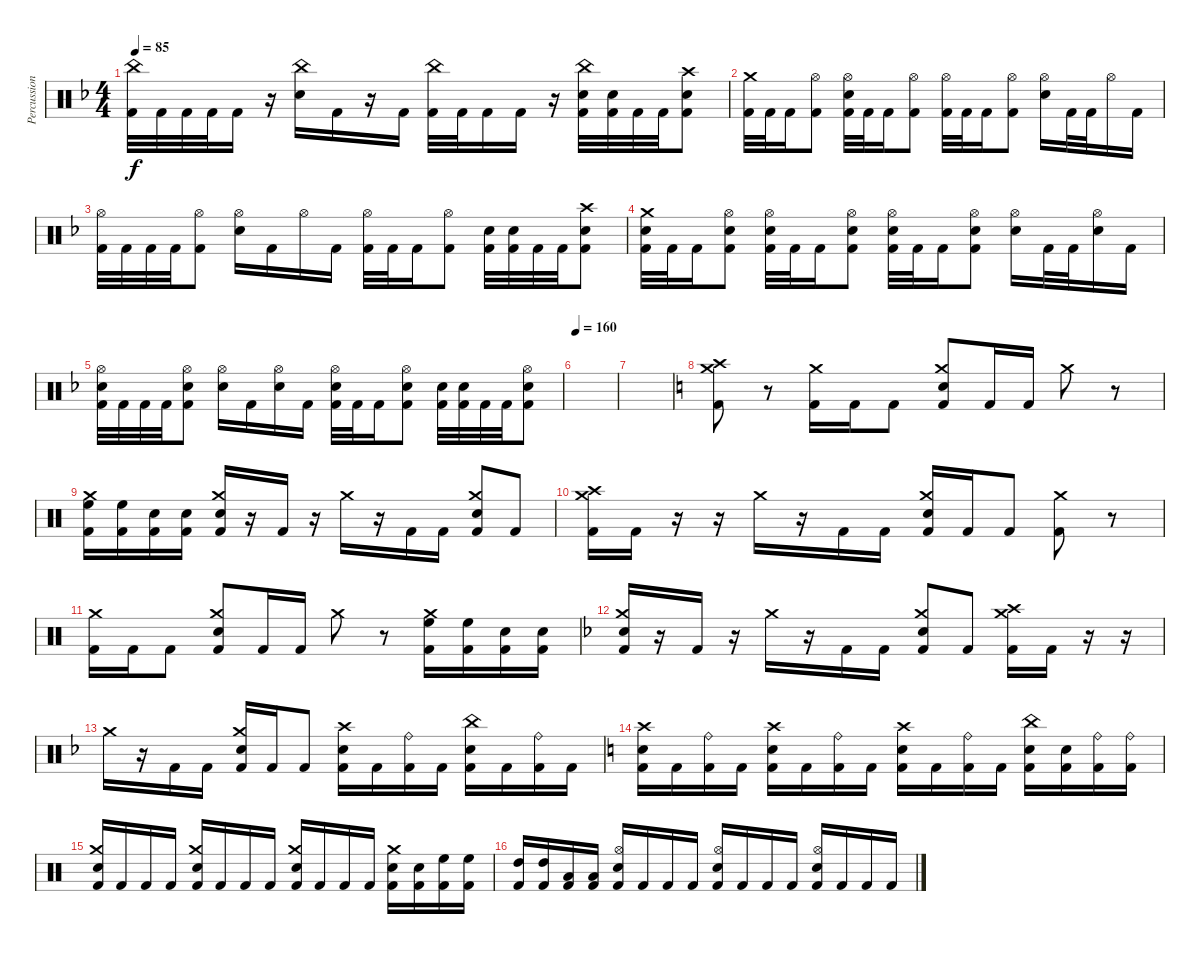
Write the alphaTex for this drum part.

\track ("Percussion" "Percussion") {instrument percussion}
\staff {score}
\articulation defaults
\ts (4 4)
\tempo 85
\clef neutral
\ks dminor
("China (hit)" "Kick (hit) 2").32{dy f} "Kick (hit) 2".32 "Kick (hit) 2".32 "Kick (hit) 2".32 "Kick (hit) 2".16 r.16 ("China (hit)" "Electric Snare (hit)").16 "Kick (hit) 2".16 r.16 "Kick (hit) 2".16 ("China (hit)" "Kick (hit) 2").32 "Kick (hit) 2".32 "Kick (hit) 2".16 "Kick (hit) 2".16 r.16 ("China (hit)" "Electric Snare (hit)" "Kick (hit) 2").32 ("Electric Snare (hit)" "Kick (hit) 2").32 "Kick (hit) 2".32 "Kick (hit) 2".32 ("Crash high (hit)" "Electric Snare (hit)" "Kick (hit) 2").8 |
("Crash medium (hit)" "Kick (hit) 2").32 "Kick (hit) 2".32 "Kick (hit) 2".16 ("Hi-Hat (open)" "Kick (hit) 2").8 ("Hi-Hat (open)" "Electric Snare (hit)" "Kick (hit) 2").32 "Kick (hit) 2".32 "Kick (hit) 2".16 ("Hi-Hat (open)" "Kick (hit) 2").8 ("Hi-Hat (open)" "Kick (hit) 2").32 "Kick (hit) 2".32 "Kick (hit) 2".16 ("Hi-Hat (open)" "Kick (hit) 2").8 ("Hi-Hat (open)" "Electric Snare (hit)").16 "Kick (hit) 2".32 "Kick (hit) 2".32 "Hi-Hat (open)".16 "Kick (hit) 2".16 |
("Hi-Hat (open)" "Kick (hit) 2").32 "Kick (hit) 2".32 "Kick (hit) 2".32 "Kick (hit) 2".32 ("Hi-Hat (open)" "Kick (hit) 2").8 ("Hi-Hat (open)" "Electric Snare (hit)").16 "Kick (hit) 2".16 "Hi-Hat (open)".16 "Kick (hit) 2".16 ("Hi-Hat (open)" "Kick (hit) 2").32 "Kick (hit) 2".32 "Kick (hit) 2".16 ("Hi-Hat (open)" "Kick (hit) 2").8 ("Electric Snare (hit)" "Kick (hit) 2").32 ("Electric Snare (hit)" "Kick (hit) 2").32 "Kick (hit) 2".32 "Kick (hit) 2".32 ("Crash high (hit)" "Electric Snare (hit)" "Kick (hit) 2").8 |
("Crash medium (hit)" "Electric Snare (hit)" "Kick (hit) 2").32 "Kick (hit) 2".32 "Kick (hit) 2".16 ("Hi-Hat (open)" "Electric Snare (hit)" "Kick (hit) 2").8 ("Hi-Hat (open)" "Electric Snare (hit)" "Kick (hit) 2").32 "Kick (hit) 2".32 "Kick (hit) 2".16 ("Hi-Hat (open)" "Electric Snare (hit)" "Kick (hit) 2").8 ("Hi-Hat (open)" "Electric Snare (hit)" "Kick (hit) 2").32 "Kick (hit) 2".32 "Kick (hit) 2".16 ("Hi-Hat (open)" "Electric Snare (hit)" "Kick (hit) 2").8 ("Hi-Hat (open)" "Electric Snare (hit)").16 "Kick (hit) 2".32 "Kick (hit) 2".32 ("Hi-Hat (open)" "Electric Snare (hit)").16 "Kick (hit) 2".16 |
("Hi-Hat (open)" "Electric Snare (hit)" "Kick (hit) 2").32 "Kick (hit) 2".32 "Kick (hit) 2".32 "Kick (hit) 2".32 ("Hi-Hat (open)" "Electric Snare (hit)" "Kick (hit) 2").8 ("Hi-Hat (open)" "Electric Snare (hit)").16 "Kick (hit) 2".16 ("Hi-Hat (open)" "Electric Snare (hit)").16 "Kick (hit) 2".16 ("Hi-Hat (open)" "Electric Snare (hit)" "Kick (hit) 2").32 "Kick (hit) 2".32 "Kick (hit) 2".16 ("Hi-Hat (open)" "Electric Snare (hit)" "Kick (hit) 2").8 ("Electric Snare (hit)" "Kick (hit) 2").32 ("Electric Snare (hit)" "Kick (hit) 2").32 "Kick (hit) 2".32 "Kick (hit) 2".32 ("Hi-Hat (open)" "Electric Snare (hit)" "Kick (hit) 2").8 |
\tempo 160
|
|
\ks c
("Crash medium (hit)" "Crash high (hit)" "Kick (hit) 2").8 r.8 ("Crash medium (hit)" "Kick (hit) 2").16 "Kick (hit) 2".16 "Kick (hit) 2".8 ("Crash medium (hit)" "Snare (hit) 2" "Kick (hit) 2").8 "Kick (hit) 2".16 "Kick (hit) 2".16 "Crash medium (hit)".8 r.8 |
("Crash medium (hit)" "High Floor Tom (hit)" "Kick (hit) 2").16 ("High Floor Tom (hit)" "Kick (hit) 2").16 ("Snare (hit) 2" "Kick (hit) 2").16 ("Snare (hit) 2" "Kick (hit) 2").16 ("Crash medium (hit)" "Snare (hit) 2" "Kick (hit) 2").16 r.16 "Kick (hit) 2".16 r.16 "Crash medium (hit)".16 r.16 "Kick (hit) 2".16 "Kick (hit) 2".16 ("Crash medium (hit)" "Snare (hit) 2" "Kick (hit) 2").8 "Kick (hit) 2".8 |
("Crash medium (hit)" "Crash high (hit)" "Kick (hit) 2").16 "Kick (hit) 2".16 r.16 r.16 "Crash medium (hit)".16 r.16 "Kick (hit) 2".16 "Kick (hit) 2".16 ("Crash medium (hit)" "Snare (hit) 2" "Kick (hit) 2").16 "Kick (hit) 2".16 "Kick (hit) 2".8 ("Crash medium (hit)" "Kick (hit) 2").8 r.8 |
("Crash medium (hit)" "Kick (hit) 2").16 "Kick (hit) 2".16 "Kick (hit) 2".8 ("Crash medium (hit)" "Snare (hit) 2" "Kick (hit) 2").8 "Kick (hit) 2".16 "Kick (hit) 2".16 "Crash medium (hit)".8 r.8 ("Crash medium (hit)" "High Floor Tom (hit)" "Kick (hit) 2").16 ("High Floor Tom (hit)" "Kick (hit) 2").16 ("Snare (hit) 2" "Kick (hit) 2").16 ("Snare (hit) 2" "Kick (hit) 2").16 |
\ks dminor
("Crash medium (hit)" "Snare (hit) 2" "Kick (hit) 2").16 r.16 "Kick (hit) 2".16 r.16 "Crash medium (hit)".16 r.16 "Kick (hit) 2".16 "Kick (hit) 2".16 ("Crash medium (hit)" "Snare (hit) 2" "Kick (hit) 2").8 "Kick (hit) 2".8 ("Crash medium (hit)" "Crash high (hit)" "Kick (hit) 2").16 "Kick (hit) 2".16 r.16 r.16 |
"Crash medium (hit)".16 r.16 "Kick (hit) 2".16 "Kick (hit) 2".16 ("Crash medium (hit)" "Snare (hit) 2" "Kick (hit) 2").16 "Kick (hit) 2".16 "Kick (hit) 2".8 ("Crash high (hit)" "Snare (hit) 2" "Kick (hit) 2").16 "Kick (hit) 2".16 ("Ride (bell)" "Kick (hit) 2").16 "Kick (hit) 2".16 ("China (hit)" "Snare (hit) 2" "Kick (hit) 2").16 "Kick (hit) 2".16 ("Ride (bell)" "Kick (hit) 2").16 "Kick (hit) 2".16 |
\ks c
("Crash high (hit)" "Snare (hit) 2" "Kick (hit) 2").16 "Kick (hit) 2".16 ("Ride (bell)" "Kick (hit) 2").16 "Kick (hit) 2".16 ("Crash high (hit)" "Snare (hit) 2" "Kick (hit) 2").16 "Kick (hit) 2".16 ("Ride (bell)" "Kick (hit) 2").16 "Kick (hit) 2".16 ("Crash high (hit)" "Snare (hit) 2" "Kick (hit) 2").16 "Kick (hit) 2".16 ("Ride (bell)" "Kick (hit) 2").16 "Kick (hit) 2".16 ("China (hit)" "Snare (hit) 2" "Kick (hit) 2").16 ("Snare (hit) 2" "Kick (hit) 2").16 ("Ride (bell)" "Kick (hit) 2").16 ("Ride (bell)" "Kick (hit) 2").16 |
("Crash medium (hit)" "Snare (hit) 2" "Kick (hit) 2").16 "Kick (hit) 2".16 "Kick (hit) 2".16 "Kick (hit) 2".16 ("Crash medium (hit)" "Snare (hit) 2" "Kick (hit) 2").16 "Kick (hit) 2".16 "Kick (hit) 2".16 "Kick (hit) 2".16 ("Crash medium (hit)" "Snare (hit) 2" "Kick (hit) 2").16 "Kick (hit) 2".16 "Kick (hit) 2".16 "Kick (hit) 2".16 ("Crash medium (hit)" "Snare (hit) 2" "Kick (hit) 2").16 ("Snare (hit) 2" "Kick (hit) 2").16 ("High Floor Tom (hit)" "Kick (hit) 2").16 ("High Floor Tom (hit)" "Kick (hit) 2").16 |
("High Tom (hit)" "Kick (hit) 2").16 ("High Tom (hit)" "Kick (hit) 2").16 ("Low Tom (hit)" "Kick (hit) 2").16 ("Low Tom (hit)" "Kick (hit) 2").16 ("Hi-Hat (open)" "Snare (hit) 2" "Kick (hit) 2").16 "Kick (hit) 2".16 "Kick (hit) 2".16 "Kick (hit) 2".16 ("Hi-Hat (open)" "Snare (hit) 2" "Kick (hit) 2").16 "Kick (hit) 2".16 "Kick (hit) 2".16 "Kick (hit) 2".16 ("Hi-Hat (open)" "Snare (hit) 2" "Kick (hit) 2").16 "Kick (hit) 2".16 "Kick (hit) 2".16 "Kick (hit) 2".16
